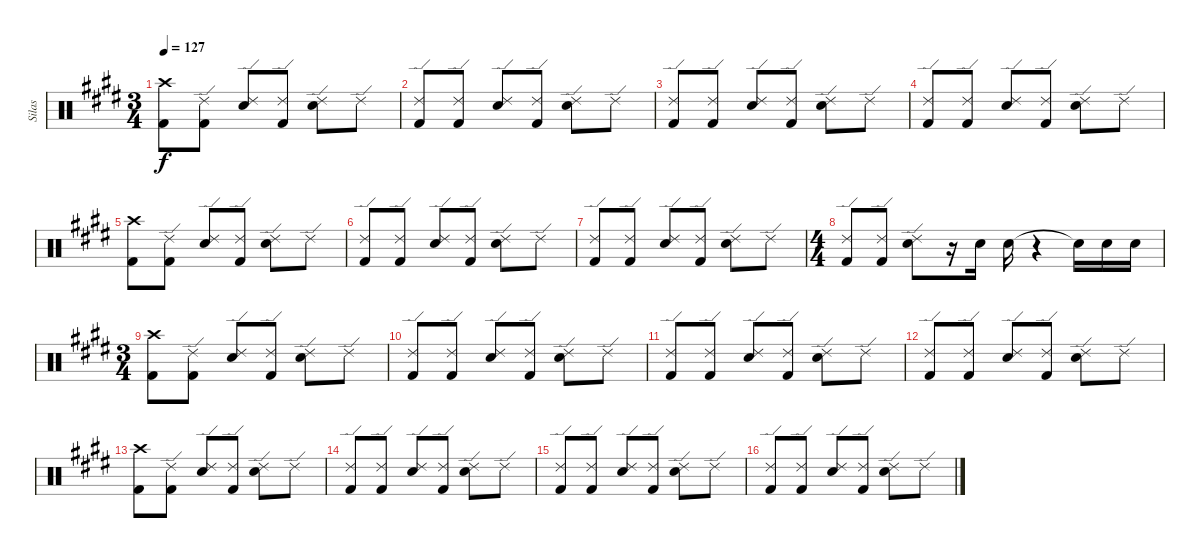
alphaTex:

\track ("Silas" "Silas") {instrument percussion}
\staff {score}
\articulation defaults
\ts (3 4)
\tempo 127
\clef neutral
\ks e
("Crash high (hit)" "Kick (hit) 2").8{dy f} ("Ride (edge) 2" "Kick (hit) 2").8 ("Ride (edge) 2" "Snare (hit) 2").8 ("Ride (edge) 2" "Kick (hit) 2").8 ("Ride (edge) 2" "Snare (hit) 2").8 "Ride (edge) 2".8 |
("Ride (edge) 2" "Kick (hit) 2").8 ("Ride (edge) 2" "Kick (hit) 2").8 ("Ride (edge) 2" "Snare (hit) 2").8 ("Ride (edge) 2" "Kick (hit) 2").8 ("Ride (edge) 2" "Snare (hit) 2").8 "Ride (edge) 2".8 |
("Ride (edge) 2" "Kick (hit) 2").8 ("Ride (edge) 2" "Kick (hit) 2").8 ("Ride (edge) 2" "Snare (hit) 2").8 ("Ride (edge) 2" "Kick (hit) 2").8 ("Ride (edge) 2" "Snare (hit) 2").8 "Ride (edge) 2".8 |
("Ride (edge) 2" "Kick (hit) 2").8 ("Ride (edge) 2" "Kick (hit) 2").8 ("Ride (edge) 2" "Snare (hit) 2").8 ("Ride (edge) 2" "Kick (hit) 2").8 ("Ride (edge) 2" "Snare (hit) 2").8 "Ride (edge) 2".8 |
("Crash high (hit)" "Kick (hit) 2").8 ("Ride (edge) 2" "Kick (hit) 2").8 ("Ride (edge) 2" "Snare (hit) 2").8 ("Ride (edge) 2" "Kick (hit) 2").8 ("Ride (edge) 2" "Snare (hit) 2").8 "Ride (edge) 2".8 |
("Ride (edge) 2" "Kick (hit) 2").8 ("Ride (edge) 2" "Kick (hit) 2").8 ("Ride (edge) 2" "Snare (hit) 2").8 ("Ride (edge) 2" "Kick (hit) 2").8 ("Ride (edge) 2" "Snare (hit) 2").8 "Ride (edge) 2".8 |
("Ride (edge) 2" "Kick (hit) 2").8 ("Ride (edge) 2" "Kick (hit) 2").8 ("Ride (edge) 2" "Snare (hit) 2").8 ("Ride (edge) 2" "Kick (hit) 2").8 ("Ride (edge) 2" "Snare (hit) 2").8 "Ride (edge) 2".8 |
\ts (4 4)
("Ride (edge) 2" "Kick (hit) 2").8 ("Ride (edge) 2" "Kick (hit) 2").8 ("Ride (edge) 2" "Snare (hit) 2").8 r.16 "Snare (hit) 2".16 "Snare (hit) 2".16 r.4 "Snare (hit) 2"{t}.16 "Snare (hit) 2".16 "Snare (hit) 2".16 |
\ts (3 4)
("Crash high (hit)" "Kick (hit) 2").8 ("Ride (edge) 2" "Kick (hit) 2").8 ("Ride (edge) 2" "Snare (hit) 2").8 ("Ride (edge) 2" "Kick (hit) 2").8 ("Ride (edge) 2" "Snare (hit) 2").8 "Ride (edge) 2".8 |
("Ride (edge) 2" "Kick (hit) 2").8 ("Ride (edge) 2" "Kick (hit) 2").8 ("Ride (edge) 2" "Snare (hit) 2").8 ("Ride (edge) 2" "Kick (hit) 2").8 ("Ride (edge) 2" "Snare (hit) 2").8 "Ride (edge) 2".8 |
("Ride (edge) 2" "Kick (hit) 2").8 ("Ride (edge) 2" "Kick (hit) 2").8 ("Ride (edge) 2" "Snare (hit) 2").8 ("Ride (edge) 2" "Kick (hit) 2").8 ("Ride (edge) 2" "Snare (hit) 2").8 "Ride (edge) 2".8 |
("Ride (edge) 2" "Kick (hit) 2").8 ("Ride (edge) 2" "Kick (hit) 2").8 ("Ride (edge) 2" "Snare (hit) 2").8 ("Ride (edge) 2" "Kick (hit) 2").8 ("Ride (edge) 2" "Snare (hit) 2").8 "Ride (edge) 2".8 |
("Crash high (hit)" "Kick (hit) 2").8 ("Ride (edge) 2" "Kick (hit) 2").8 ("Ride (edge) 2" "Snare (hit) 2").8 ("Ride (edge) 2" "Kick (hit) 2").8 ("Ride (edge) 2" "Snare (hit) 2").8 "Ride (edge) 2".8 |
("Ride (edge) 2" "Kick (hit) 2").8 ("Ride (edge) 2" "Kick (hit) 2").8 ("Ride (edge) 2" "Snare (hit) 2").8 ("Ride (edge) 2" "Kick (hit) 2").8 ("Ride (edge) 2" "Snare (hit) 2").8 "Ride (edge) 2".8 |
("Ride (edge) 2" "Kick (hit) 2").8 ("Ride (edge) 2" "Kick (hit) 2").8 ("Ride (edge) 2" "Snare (hit) 2").8 ("Ride (edge) 2" "Kick (hit) 2").8 ("Ride (edge) 2" "Snare (hit) 2").8 "Ride (edge) 2".8 |
("Ride (edge) 2" "Kick (hit) 2").8 ("Ride (edge) 2" "Kick (hit) 2").8 ("Ride (edge) 2" "Snare (hit) 2").8 ("Ride (edge) 2" "Kick (hit) 2").8 ("Ride (edge) 2" "Snare (hit) 2").8 "Ride (edge) 2".8
